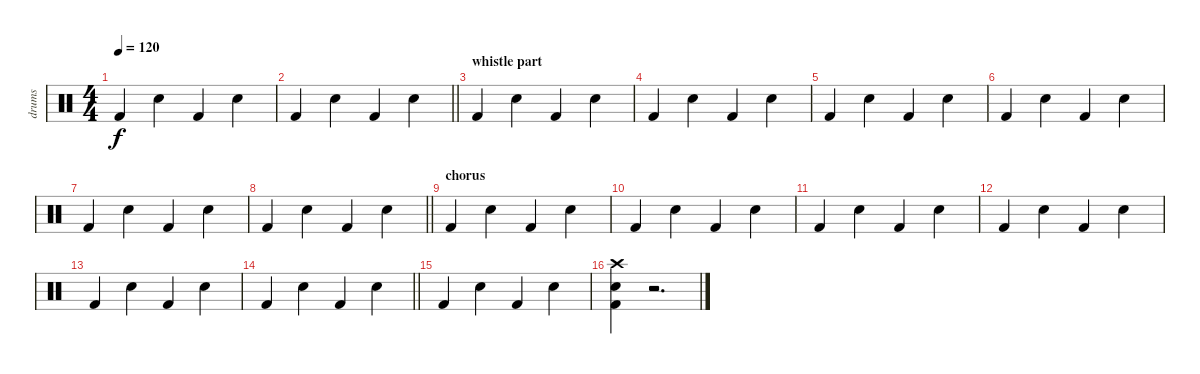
\track ("drums" "drums") {instrument percussion}
\staff {score}
\articulation defaults
\ts (4 4)
\tempo 120
\clef neutral
\ks c "Kick (hit) 2".4{dy f} "Snare (hit) 2".4 "Kick (hit) 2".4 "Snare (hit) 2".4
|
\barLineRight lightlight "Kick (hit) 2".4 "Snare (hit) 2".4 "Kick (hit) 2".4 "Snare (hit) 2".4
|
\section ("" "whistle part")
"Kick (hit) 2".4 "Snare (hit) 2".4 "Kick (hit) 2".4 "Snare (hit) 2".4 |
"Kick (hit) 2".4 "Snare (hit) 2".4 "Kick (hit) 2".4 "Snare (hit) 2".4 |
"Kick (hit) 2".4 "Snare (hit) 2".4 "Kick (hit) 2".4 "Snare (hit) 2".4 |
"Kick (hit) 2".4 "Snare (hit) 2".4 "Kick (hit) 2".4 "Snare (hit) 2".4 |
"Kick (hit) 2".4 "Snare (hit) 2".4 "Kick (hit) 2".4 "Snare (hit) 2".4 |
\barLineRight lightlight "Kick (hit) 2".4 "Snare (hit) 2".4 "Kick (hit) 2".4 "Snare (hit) 2".4
|
\section ("" "chorus")
"Kick (hit) 2".4 "Snare (hit) 2".4 "Kick (hit) 2".4 "Snare (hit) 2".4 |
"Kick (hit) 2".4 "Snare (hit) 2".4 "Kick (hit) 2".4 "Snare (hit) 2".4 |
"Kick (hit) 2".4 "Snare (hit) 2".4 "Kick (hit) 2".4 "Snare (hit) 2".4 |
"Kick (hit) 2".4 "Snare (hit) 2".4 "Kick (hit) 2".4 "Snare (hit) 2".4 |
"Kick (hit) 2".4 "Snare (hit) 2".4 "Kick (hit) 2".4 "Snare (hit) 2".4 |
\barLineRight lightlight "Kick (hit) 2".4 "Snare (hit) 2".4 "Kick (hit) 2".4 "Snare (hit) 2".4
|
"Kick (hit) 2".4 "Snare (hit) 2".4 "Kick (hit) 2".4 "Snare (hit) 2".4 |
("Crash high (hit)" "Kick (hit) 2" "Snare (hit) 2").4 r.2{d}
